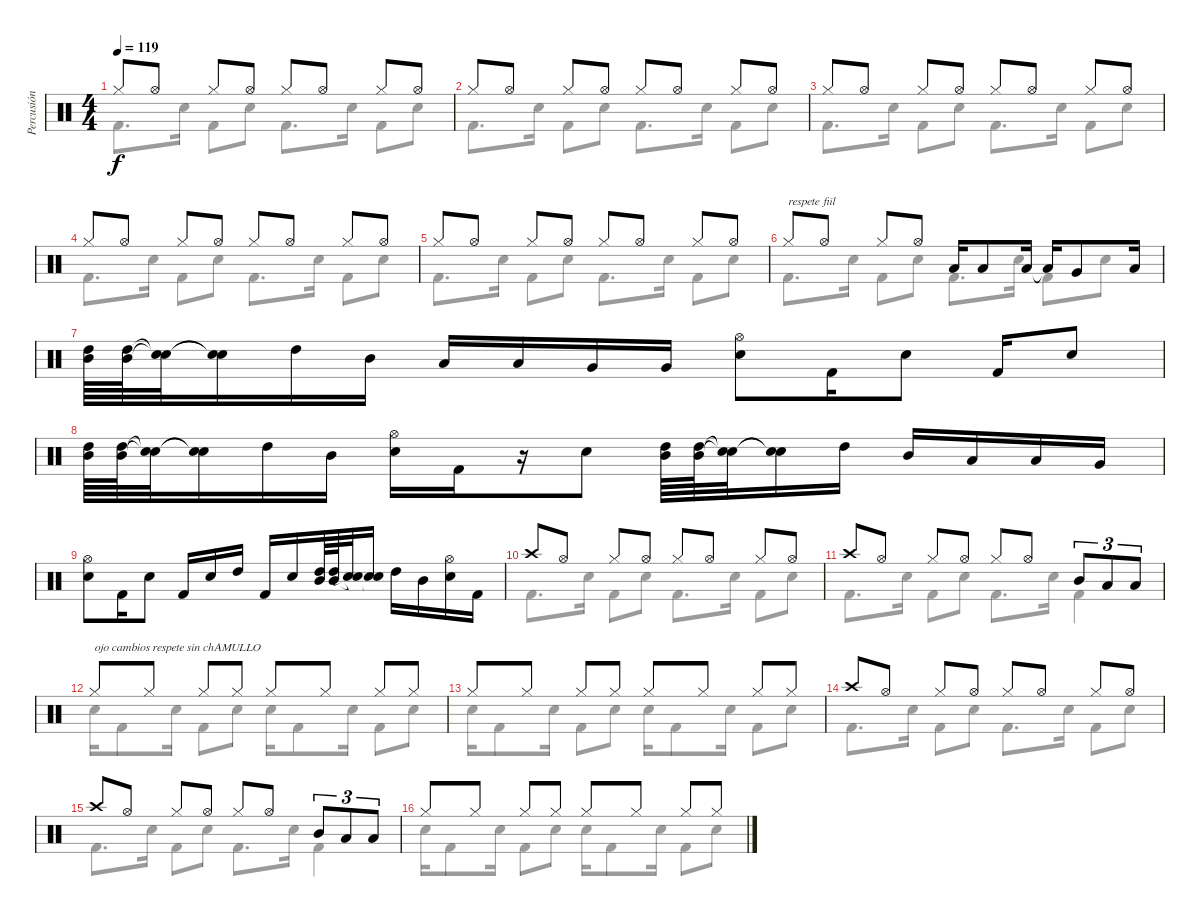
\track ("Percusión" "Percusión") {mute instrument percussion}
\staff {score}
\articulation defaults
\voice
\ts (4 4)
\tempo 119
\clef neutral
\ks c "Hi-Hat (closed)".8{dy f} "Hi-Hat (open)".8 "Hi-Hat (closed)".8 "Hi-Hat (open)".8 "Hi-Hat (closed)".8 "Hi-Hat (open)".8 "Hi-Hat (closed)".8 "Hi-Hat (open)".8
|
"Hi-Hat (closed)".8 "Hi-Hat (open)".8 "Hi-Hat (closed)".8 "Hi-Hat (open)".8 "Hi-Hat (closed)".8 "Hi-Hat (open)".8 "Hi-Hat (closed)".8 "Hi-Hat (open)".8 |
"Hi-Hat (closed)".8 "Hi-Hat (open)".8 "Hi-Hat (closed)".8 "Hi-Hat (open)".8 "Hi-Hat (closed)".8 "Hi-Hat (open)".8 "Hi-Hat (closed)".8 "Hi-Hat (open)".8 |
"Hi-Hat (closed)".8 "Hi-Hat (open)".8 "Hi-Hat (closed)".8 "Hi-Hat (open)".8 "Hi-Hat (closed)".8 "Hi-Hat (open)".8 "Hi-Hat (closed)".8 "Hi-Hat (open)".8 |
"Hi-Hat (closed)".8 "Hi-Hat (open)".8 "Hi-Hat (closed)".8 "Hi-Hat (open)".8 "Hi-Hat (closed)".8 "Hi-Hat (open)".8 "Hi-Hat (closed)".8 "Hi-Hat (open)".8 |
"Hi-Hat (closed)".8{txt "respete fiil"} "Hi-Hat (open)".8 "Hi-Hat (closed)".8 "Hi-Hat (open)".8 "Low Tom (hit)".16 "Low Tom (hit)".8 "Low Tom (hit)".16 "Low Tom (hit)"{t}.16 "Very Low Tom (hit)".8 "Low Floor Tom (hit)".16 |
("High Tom (hit)" "Mid Tom (hit)").64 ("High Tom (hit)" "Mid Tom (hit)").64 ("Snare (hit)"{t} "Snare (hit)"{t}).32 ("Snare (hit)"{t} "Snare (hit)"{t}).16 "High Tom (hit)".16 "Mid Tom (hit)".16 "Low Tom (hit)".16 "Low Tom (hit)".16 "Very Low Tom (hit)".16 "Very Low Tom (hit)".16 ("Electric Snare (hit)" "Hi-Hat (open)").8 "Kick (hit) 2".16 "Electric Snare (hit)".8 "Kick (hit) 2".16 "Electric Snare (hit)".8 |
("High Tom (hit)" "Mid Tom (hit)").64 ("High Tom (hit)" "Mid Tom (hit)").64 ("Snare (hit)"{t} "Snare (hit)"{t}).32 ("Snare (hit)"{t} "Snare (hit)"{t}).16 "High Tom (hit)".16 "Mid Tom (hit)".16 ("Electric Snare (hit)" "Hi-Hat (open)").16 "Kick (hit) 2".16 r.16 "Electric Snare (hit)".8 ("High Tom (hit)" "Mid Tom (hit)").64 ("High Tom (hit)" "Mid Tom (hit)").64 ("Snare (hit)"{t} "Snare (hit)"{t}).32 ("Snare (hit)"{t} "Snare (hit)"{t}).16 "High Tom (hit)".16 "Mid Tom (hit)".16 "Low Tom (hit)".16 "Low Tom (hit)".16 "Very Low Tom (hit)".16 |
("Electric Snare (hit)" "Hi-Hat (open)").8 "Kick (hit) 2".16 "Electric Snare (hit)".8 "Kick (hit) 2".16 "Electric Snare (hit)".16 "High Tom (hit)".16 "Kick (hit) 2".16 "Electric Snare (hit)".16 ("High Tom (hit)" "Mid Tom (hit)").64 ("High Tom (hit)" "Mid Tom (hit)").64 ("Snare (hit)"{t} "Snare (hit)"{t}).32 ("Snare (hit)"{t} "Snare (hit)"{t}).16 "High Tom (hit)".16 "Mid Tom (hit)".16 ("Electric Snare (hit)" "Hi-Hat (open)").16 "Kick (hit) 2".16 |
"Crash high (hit)".8 "Hi-Hat (open)".8 "Hi-Hat (closed)".8 "Hi-Hat (open)".8 "Hi-Hat (closed)".8 "Hi-Hat (open)".8 "Hi-Hat (closed)".8 "Hi-Hat (open)".8 |
"Crash high (hit)".8 "Hi-Hat (open)".8 "Hi-Hat (closed)".8 "Hi-Hat (open)".8 "Hi-Hat (closed)".8 "Hi-Hat (open)".8 "Mid Tom (hit)".8{tu (3 2)} "Low Tom (hit)".8{tu (3 2)} "Low Tom (hit)".8{tu (3 2)} |
"Hi-Hat (closed)".8{txt "ojo cambios respete sin chAMULLO"} "Hi-Hat (closed)".8 "Hi-Hat (closed)".8 "Hi-Hat (closed)".8 "Hi-Hat (closed)".8 "Hi-Hat (closed)".8 "Hi-Hat (closed)".8 "Hi-Hat (closed)".8 |
"Hi-Hat (closed)".8 "Hi-Hat (closed)".8 "Hi-Hat (closed)".8 "Hi-Hat (closed)".8 "Hi-Hat (closed)".8 "Hi-Hat (closed)".8 "Hi-Hat (closed)".8 "Hi-Hat (closed)".8 |
"Crash high (hit)".8 "Hi-Hat (open)".8 "Hi-Hat (closed)".8 "Hi-Hat (open)".8 "Hi-Hat (closed)".8 "Hi-Hat (open)".8 "Hi-Hat (closed)".8 "Hi-Hat (open)".8 |
"Crash high (hit)".8 "Hi-Hat (open)".8 "Hi-Hat (closed)".8 "Hi-Hat (open)".8 "Hi-Hat (closed)".8 "Hi-Hat (open)".8 "Mid Tom (hit)".8{tu (3 2)} "Low Tom (hit)".8{tu (3 2)} "Low Tom (hit)".8{tu (3 2)} |
"Hi-Hat (closed)".8 "Hi-Hat (closed)".8 "Hi-Hat (closed)".8 "Hi-Hat (closed)".8 "Hi-Hat (closed)".8 "Hi-Hat (closed)".8 "Hi-Hat (closed)".8 "Hi-Hat (closed)".8
\voice
\clef neutral
\ottava regular
\simile none
\ks c "Kick (hit) 2".8{d dy f} "Snare (hit) 2".16 "Kick (hit) 2".8 "Snare (hit) 2".8 "Kick (hit) 2".8{d} "Snare (hit) 2".16 "Kick (hit) 2".8 "Snare (hit) 2".8
|
"Kick (hit) 2".8{d} "Snare (hit) 2".16 "Kick (hit) 2".8 "Snare (hit) 2".8 "Kick (hit) 2".8{d} "Snare (hit) 2".16 "Kick (hit) 2".8 "Snare (hit) 2".8 |
"Kick (hit) 2".8{d} "Snare (hit) 2".16 "Kick (hit) 2".8 "Snare (hit) 2".8 "Kick (hit) 2".8{d} "Snare (hit) 2".16 "Kick (hit) 2".8 "Snare (hit) 2".8 |
"Kick (hit) 2".8{d} "Snare (hit) 2".16 "Kick (hit) 2".8 "Snare (hit) 2".8 "Kick (hit) 2".8{d} "Snare (hit) 2".16 "Kick (hit) 2".8 "Snare (hit) 2".8 |
"Kick (hit) 2".8{d} "Snare (hit) 2".16 "Kick (hit) 2".8 "Snare (hit) 2".8 "Kick (hit) 2".8{d} "Snare (hit) 2".16 "Kick (hit) 2".8 "Snare (hit) 2".8 |
"Kick (hit) 2".8{d} "Snare (hit) 2".16 "Kick (hit) 2".8 "Snare (hit) 2".8 "Kick (hit) 2".8{d} "Snare (hit) 2".16 "Kick (hit) 2".8 "Snare (hit) 2".8 |
|
|
|
"Kick (hit) 2".8{d} "Snare (hit) 2".16 "Kick (hit) 2".8 "Snare (hit) 2".8 "Kick (hit) 2".8{d} "Snare (hit) 2".16 "Kick (hit) 2".8 "Snare (hit) 2".8 |
"Kick (hit) 2".8{d} "Snare (hit) 2".16 "Kick (hit) 2".8 "Snare (hit) 2".8 "Kick (hit) 2".8{d} "Snare (hit) 2".16 "Kick (hit) 2".4 |
"Electric Snare (hit)".16 "Kick (hit) 2".8 "Electric Snare (hit)".16 "Kick (hit) 2".8 "Electric Snare (hit)".8 "Electric Snare (hit)".16 "Kick (hit) 2".8 "Electric Snare (hit)".16 "Kick (hit) 2".8 "Electric Snare (hit)".8 |
"Electric Snare (hit)".16 "Kick (hit) 2".8 "Electric Snare (hit)".16 "Kick (hit) 2".8 "Electric Snare (hit)".8 "Electric Snare (hit)".16 "Kick (hit) 2".8 "Electric Snare (hit)".16 "Kick (hit) 2".8 "Electric Snare (hit)".8 |
"Kick (hit) 2".8{d} "Electric Snare (hit)".16 "Kick (hit) 2".8 "Electric Snare (hit)".8 "Kick (hit) 2".8{d} "Electric Snare (hit)".16 "Kick (hit) 2".8 "Electric Snare (hit)".8 |
"Kick (hit) 2".8{d} "Electric Snare (hit)".16 "Kick (hit) 2".8 "Electric Snare (hit)".8 "Kick (hit) 2".8{d} "Electric Snare (hit)".16 "Kick (hit) 2".4 |
"Electric Snare (hit)".16 "Kick (hit) 2".8 "Electric Snare (hit)".16 "Kick (hit) 2".8 "Electric Snare (hit)".8 "Electric Snare (hit)".16 "Kick (hit) 2".8 "Electric Snare (hit)".16 "Kick (hit) 2".8 "Electric Snare (hit)".8
